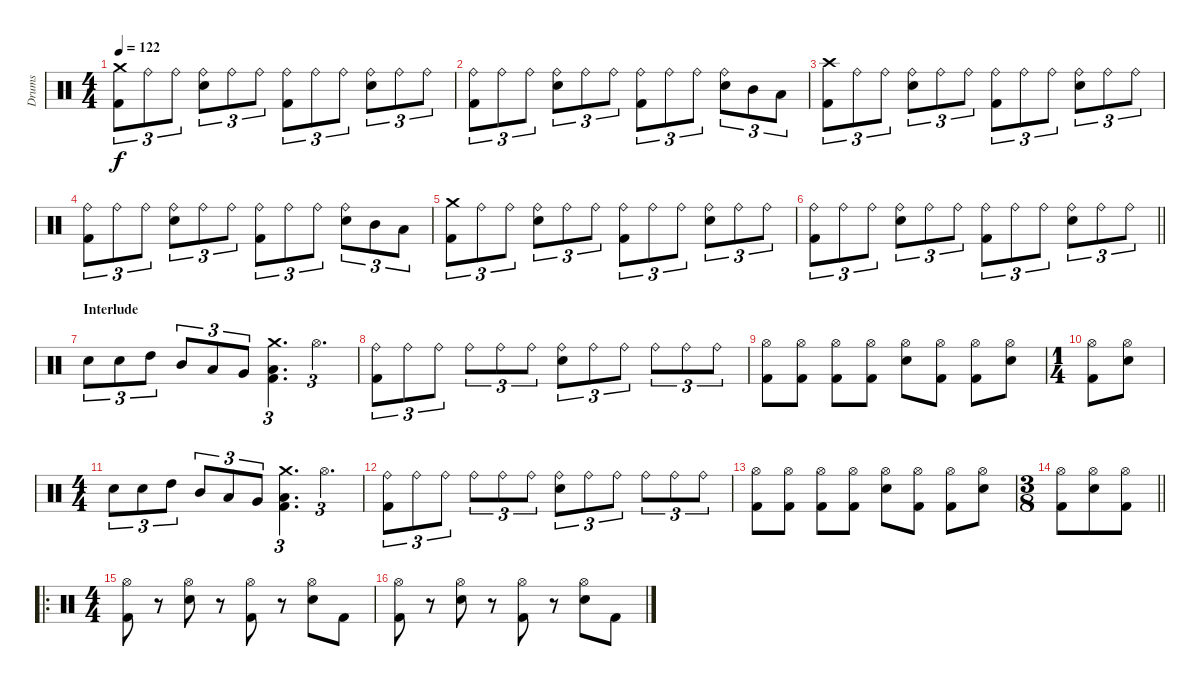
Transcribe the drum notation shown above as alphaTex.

\track ("Drums" "Drums") {instrument percussion}
\staff
\articulation defaults
\ts (4 4)
\tempo 122
\clef neutral
\ks c
("Crash medium (hit)" "Kick (hit) 2").8{tu (3 2) dy f} "Ride (bell)".8{tu (3 2)} "Ride (bell)".8{tu (3 2)} ("Ride (bell)" "Electric Snare (hit)").8{tu (3 2)} "Ride (bell)".8{tu (3 2)} "Ride (bell)".8{tu (3 2)} ("Ride (bell)" "Kick (hit) 2").8{tu (3 2)} "Ride (bell)".8{tu (3 2)} "Ride (bell)".8{tu (3 2)} ("Ride (bell)" "Electric Snare (hit)").8{tu (3 2)} "Ride (bell)".8{tu (3 2)} "Ride (bell)".8{tu (3 2)} |
("Ride (bell)" "Kick (hit) 2").8{tu (3 2)} "Ride (bell)".8{tu (3 2)} "Ride (bell)".8{tu (3 2)} ("Ride (bell)" "Electric Snare (hit)").8{tu (3 2)} "Ride (bell)".8{tu (3 2)} "Ride (bell)".8{tu (3 2)} ("Ride (bell)" "Kick (hit) 2").8{tu (3 2)} "Ride (bell)".8{tu (3 2)} "Ride (bell)".8{tu (3 2)} ("Ride (bell)" "Electric Snare (hit)").8{tu (3 2)} "Mid Tom (hit)".8{tu (3 2)} "Low Tom (hit)".8{tu (3 2)} |
("Crash high (hit)" "Kick (hit) 2").8{tu (3 2)} "Ride (bell)".8{tu (3 2)} "Ride (bell)".8{tu (3 2)} ("Ride (bell)" "Electric Snare (hit)").8{tu (3 2)} "Ride (bell)".8{tu (3 2)} "Ride (bell)".8{tu (3 2)} ("Ride (bell)" "Kick (hit) 2").8{tu (3 2)} "Ride (bell)".8{tu (3 2)} "Ride (bell)".8{tu (3 2)} ("Ride (bell)" "Electric Snare (hit)").8{tu (3 2)} "Ride (bell)".8{tu (3 2)} "Ride (bell)".8{tu (3 2)} |
("Ride (bell)" "Kick (hit) 2").8{tu (3 2)} "Ride (bell)".8{tu (3 2)} "Ride (bell)".8{tu (3 2)} ("Ride (bell)" "Electric Snare (hit)").8{tu (3 2)} "Ride (bell)".8{tu (3 2)} "Ride (bell)".8{tu (3 2)} ("Ride (bell)" "Kick (hit) 2").8{tu (3 2)} "Ride (bell)".8{tu (3 2)} "Ride (bell)".8{tu (3 2)} ("Ride (bell)" "Electric Snare (hit)").8{tu (3 2)} "Mid Tom (hit)".8{tu (3 2)} "Low Tom (hit)".8{tu (3 2)} |
("Crash medium (hit)" "Kick (hit) 2").8{tu (3 2)} "Ride (bell)".8{tu (3 2)} "Ride (bell)".8{tu (3 2)} ("Ride (bell)" "Electric Snare (hit)").8{tu (3 2)} "Ride (bell)".8{tu (3 2)} "Ride (bell)".8{tu (3 2)} ("Ride (bell)" "Kick (hit) 2").8{tu (3 2)} "Ride (bell)".8{tu (3 2)} "Ride (bell)".8{tu (3 2)} ("Ride (bell)" "Electric Snare (hit)").8{tu (3 2)} "Ride (bell)".8{tu (3 2)} "Ride (bell)".8{tu (3 2)} |
\barLineRight lightlight
("Ride (bell)" "Kick (hit) 2").8{tu (3 2)} "Ride (bell)".8{tu (3 2)} "Ride (bell)".8{tu (3 2)} ("Ride (bell)" "Electric Snare (hit)").8{tu (3 2)} "Ride (bell)".8{tu (3 2)} "Ride (bell)".8{tu (3 2)} ("Ride (bell)" "Kick (hit) 2").8{tu (3 2)} "Ride (bell)".8{tu (3 2)} "Ride (bell)".8{tu (3 2)} ("Ride (bell)" "Electric Snare (hit)").8{tu (3 2)} "Ride (bell)".8{tu (3 2)} "Ride (bell)".8{tu (3 2)} |
\section ("" "Interlude")
"Electric Snare (hit)".8{tu (3 2)} "Electric Snare (hit)".8{tu (3 2)} "High Tom (hit)".8{tu (3 2)} "Mid Tom (hit)".8{tu (3 2)} "Low Tom (hit)".8{tu (3 2)} "Very Low Tom (hit)".8{tu (3 2)} ("Crash medium (hit)" "Low Floor Tom (hit)" "Kick (hit) 2").4{d tu (3 2)} "Hi-Hat (open)".4{d tu (3 2)} |
("Ride (bell)" "Kick (hit) 2").8{tu (3 2)} "Ride (bell)".8{tu (3 2)} "Ride (bell)".8{tu (3 2)} "Ride (bell)".8{tu (3 2)} "Ride (bell)".8{tu (3 2)} "Ride (bell)".8{tu (3 2)} ("Ride (bell)" "Electric Snare (hit)").8{tu (3 2)} "Ride (bell)".8{tu (3 2)} "Ride (bell)".8{tu (3 2)} "Ride (bell)".8{tu (3 2)} "Ride (bell)".8{tu (3 2)} "Ride (bell)".8{tu (3 2)} |
("Hi-Hat (open)" "Kick (hit) 2").8 ("Hi-Hat (open)" "Kick (hit) 2").8 ("Hi-Hat (open)" "Kick (hit) 2").8 ("Hi-Hat (open)" "Kick (hit) 2").8 ("Hi-Hat (open)" "Electric Snare (hit)").8 ("Hi-Hat (open)" "Kick (hit) 2").8 ("Hi-Hat (open)" "Kick (hit) 2").8 ("Hi-Hat (open)" "Electric Snare (hit)").8 |
\ts (1 4)
("Hi-Hat (open)" "Kick (hit) 2").8 ("Hi-Hat (open)" "Electric Snare (hit)").8 |
\ts (4 4)
"Electric Snare (hit)".8{tu (3 2)} "Electric Snare (hit)".8{tu (3 2)} "High Tom (hit)".8{tu (3 2)} "Mid Tom (hit)".8{tu (3 2)} "Low Tom (hit)".8{tu (3 2)} "Very Low Tom (hit)".8{tu (3 2)} ("Crash medium (hit)" "Low Floor Tom (hit)" "Kick (hit) 2").4{d tu (3 2)} "Hi-Hat (open)".4{d tu (3 2)} |
("Ride (bell)" "Kick (hit) 2").8{tu (3 2)} "Ride (bell)".8{tu (3 2)} "Ride (bell)".8{tu (3 2)} "Ride (bell)".8{tu (3 2)} "Ride (bell)".8{tu (3 2)} "Ride (bell)".8{tu (3 2)} ("Ride (bell)" "Electric Snare (hit)").8{tu (3 2)} "Ride (bell)".8{tu (3 2)} "Ride (bell)".8{tu (3 2)} "Ride (bell)".8{tu (3 2)} "Ride (bell)".8{tu (3 2)} "Ride (bell)".8{tu (3 2)} |
("Hi-Hat (open)" "Kick (hit) 2").8 ("Hi-Hat (open)" "Kick (hit) 2").8 ("Hi-Hat (open)" "Kick (hit) 2").8 ("Hi-Hat (open)" "Kick (hit) 2").8 ("Hi-Hat (open)" "Electric Snare (hit)").8 ("Hi-Hat (open)" "Kick (hit) 2").8 ("Hi-Hat (open)" "Kick (hit) 2").8 ("Hi-Hat (open)" "Electric Snare (hit)").8 |
\ts (3 8)
\barLineRight lightlight
("Hi-Hat (open)" "Kick (hit) 2").8 ("Hi-Hat (open)" "Electric Snare (hit)").8 ("Hi-Hat (open)" "Kick (hit) 2").8 |
\ro
\ts (4 4)
("Hi-Hat (open)" "Kick (hit) 2").8 r.8 ("Hi-Hat (open)" "Electric Snare (hit)").8 r.8 ("Hi-Hat (open)" "Kick (hit) 2").8 r.8 ("Hi-Hat (open)" "Electric Snare (hit)").8 "Kick (hit) 2".8 |
("Hi-Hat (open)" "Kick (hit) 2").8 r.8 ("Hi-Hat (open)" "Electric Snare (hit)").8 r.8 ("Hi-Hat (open)" "Kick (hit) 2").8 r.8 ("Hi-Hat (open)" "Electric Snare (hit)").8 "Kick (hit) 2".8
